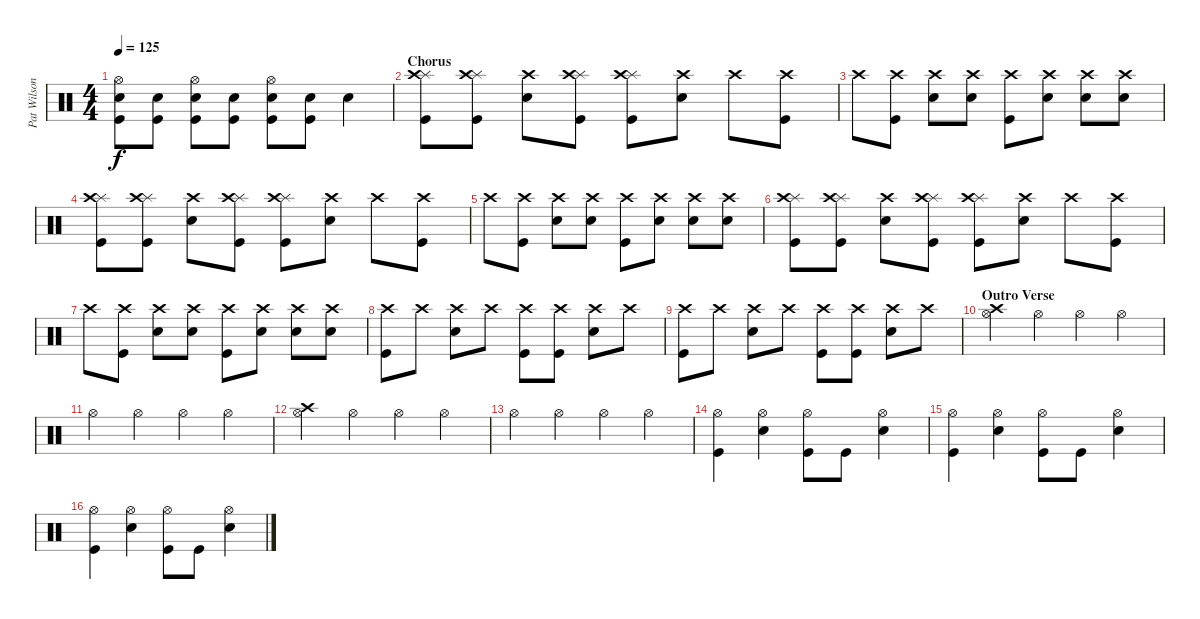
\track ("Pat Wilson-Drums" "Pat Wilson") {instrument percussion}
\staff {score}
\articulation defaults
\ts (4 4)
\tempo 125
\clef neutral
\ks c
("Snare (hit) 2" "Kick (hit)" "Hi-Hat (open)").8{dy f} ("Snare (hit) 2" "Kick (hit)").8 ("Snare (hit) 2" "Kick (hit)" "Hi-Hat (open)").8 ("Snare (hit) 2" "Kick (hit)").8 ("Snare (hit) 2" "Kick (hit)" "Hi-Hat (open)").8 ("Snare (hit) 2" "Kick (hit)").8 "Snare (hit) 2".4 |
\section ("" "Chorus")
("Splash (hit)" "Kick (hit)" "Crash high (hit)").8 ("Splash (hit)" "Kick (hit)" "Crash high (hit)").8 ("Snare (hit) 2" "Crash high (hit)").8 ("Splash (hit)" "Kick (hit)" "Crash high (hit)").8 ("Splash (hit)" "Kick (hit)" "Crash high (hit)").8 ("Snare (hit) 2" "Crash high (hit)").8 "Crash high (hit)".8 ("Kick (hit)" "Crash high (hit)").8 |
"Crash high (hit)".8 ("Kick (hit)" "Crash high (hit)").8 ("Snare (hit) 2" "Crash high (hit)").8 ("Snare (hit) 2" "Crash high (hit)").8 ("Kick (hit)" "Crash high (hit)").8 ("Snare (hit) 2" "Crash high (hit)").8 ("Snare (hit) 2" "Crash high (hit)").8 ("Snare (hit) 2" "Crash high (hit)").8 |
("Splash (hit)" "Kick (hit)" "Crash high (hit)").8 ("Splash (hit)" "Kick (hit)" "Crash high (hit)").8 ("Snare (hit) 2" "Crash high (hit)").8 ("Splash (hit)" "Kick (hit)" "Crash high (hit)").8 ("Splash (hit)" "Kick (hit)" "Crash high (hit)").8 ("Snare (hit) 2" "Crash high (hit)").8 "Crash high (hit)".8 ("Kick (hit)" "Crash high (hit)").8 |
"Crash high (hit)".8 ("Kick (hit)" "Crash high (hit)").8 ("Snare (hit) 2" "Crash high (hit)").8 ("Snare (hit) 2" "Crash high (hit)").8 ("Kick (hit)" "Crash high (hit)").8 ("Snare (hit) 2" "Crash high (hit)").8 ("Snare (hit) 2" "Crash high (hit)").8 ("Snare (hit) 2" "Crash high (hit)").8 |
("Splash (hit)" "Kick (hit)" "Crash high (hit)").8 ("Splash (hit)" "Kick (hit)" "Crash high (hit)").8 ("Snare (hit) 2" "Crash high (hit)").8 ("Splash (hit)" "Kick (hit)" "Crash high (hit)").8 ("Splash (hit)" "Kick (hit)" "Crash high (hit)").8 ("Snare (hit) 2" "Crash high (hit)").8 "Crash high (hit)".8 ("Kick (hit)" "Crash high (hit)").8 |
"Crash high (hit)".8 ("Kick (hit)" "Crash high (hit)").8 ("Snare (hit) 2" "Crash high (hit)").8 ("Snare (hit) 2" "Crash high (hit)").8 ("Kick (hit)" "Crash high (hit)").8 ("Snare (hit) 2" "Crash high (hit)").8 ("Snare (hit) 2" "Crash high (hit)").8 ("Snare (hit) 2" "Crash high (hit)").8 |
("Kick (hit)" "Crash high (hit)").8 "Crash high (hit)".8 ("Snare (hit) 2" "Crash high (hit)").8 "Crash high (hit)".8 ("Kick (hit)" "Crash high (hit)").8 ("Kick (hit)" "Crash high (hit)").8 ("Snare (hit) 2" "Crash high (hit)").8 "Crash high (hit)".8 |
("Kick (hit)" "Crash high (hit)").8 "Crash high (hit)".8 ("Snare (hit) 2" "Crash high (hit)").8 "Crash high (hit)".8 ("Kick (hit)" "Crash high (hit)").8 ("Kick (hit)" "Crash high (hit)").8 ("Snare (hit) 2" "Crash high (hit)").8 "Crash high (hit)".8 |
\section ("" "Outro Verse")
("Crash high (hit)" "Hi-Hat (open)").4 "Hi-Hat (open)".4 "Hi-Hat (open)".4 "Hi-Hat (open)".4 |
"Hi-Hat (open)".4 "Hi-Hat (open)".4 "Hi-Hat (open)".4 "Hi-Hat (open)".4 |
("Crash high (hit)" "Hi-Hat (open)").4 "Hi-Hat (open)".4 "Hi-Hat (open)".4 "Hi-Hat (open)".4 |
"Hi-Hat (open)".4 "Hi-Hat (open)".4 "Hi-Hat (open)".4 "Hi-Hat (open)".4 |
("Kick (hit)" "Hi-Hat (open)").4 ("Snare (hit) 2" "Hi-Hat (open)").4 ("Kick (hit)" "Hi-Hat (open)").8 "Kick (hit)".8 ("Snare (hit) 2" "Hi-Hat (open)").4 |
("Kick (hit)" "Hi-Hat (open)").4 ("Snare (hit) 2" "Hi-Hat (open)").4 ("Kick (hit)" "Hi-Hat (open)").8 "Kick (hit)".8 ("Snare (hit) 2" "Hi-Hat (open)").4 |
("Kick (hit)" "Hi-Hat (open)").4 ("Snare (hit) 2" "Hi-Hat (open)").4 ("Kick (hit)" "Hi-Hat (open)").8 "Kick (hit)".8 ("Snare (hit) 2" "Hi-Hat (open)").4
